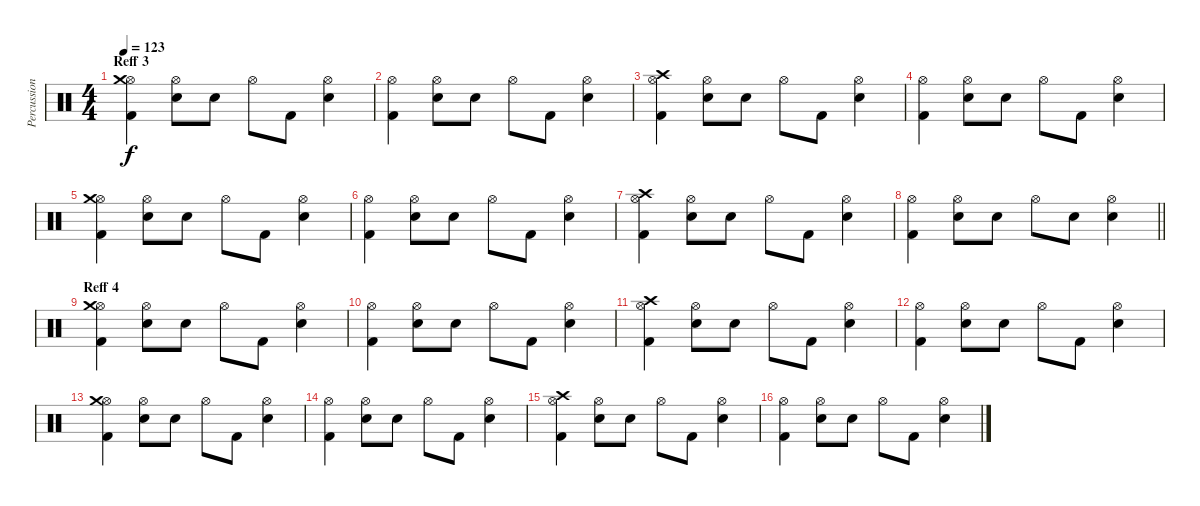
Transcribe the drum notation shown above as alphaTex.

\track ("Percussion 1" "Percussion") {instrument percussion}
\staff {score}
\articulation defaults
\ts (4 4)
\section ("" "Reff 3")
\tempo 123
\clef neutral
\ks c
("Hi-Hat (open)" "Crash medium (hit)" "Kick (hit) 2").4{dy f} ("Hi-Hat (open)" "Electric Snare (hit)").8 "Electric Snare (hit)".8 "Hi-Hat (open)".8 "Kick (hit) 2".8 ("Hi-Hat (open)" "Electric Snare (hit)").4 |
("Hi-Hat (open)" "Kick (hit) 2").4 ("Hi-Hat (open)" "Electric Snare (hit)").8 "Electric Snare (hit)".8 "Hi-Hat (open)".8 "Kick (hit) 2".8 ("Hi-Hat (open)" "Electric Snare (hit)").4 |
("Hi-Hat (open)" "Crash high (hit)" "Kick (hit) 2").4 ("Hi-Hat (open)" "Electric Snare (hit)").8 "Electric Snare (hit)".8 "Hi-Hat (open)".8 "Kick (hit) 2".8 ("Hi-Hat (open)" "Electric Snare (hit)").4 |
("Hi-Hat (open)" "Kick (hit) 2").4 ("Hi-Hat (open)" "Electric Snare (hit)").8 "Electric Snare (hit)".8 "Hi-Hat (open)".8 "Kick (hit) 2".8 ("Hi-Hat (open)" "Electric Snare (hit)").4 |
("Hi-Hat (open)" "Crash medium (hit)" "Kick (hit) 2").4 ("Hi-Hat (open)" "Electric Snare (hit)").8 "Electric Snare (hit)".8 "Hi-Hat (open)".8 "Kick (hit) 2".8 ("Hi-Hat (open)" "Electric Snare (hit)").4 |
("Hi-Hat (open)" "Kick (hit) 2").4 ("Hi-Hat (open)" "Electric Snare (hit)").8 "Electric Snare (hit)".8 "Hi-Hat (open)".8 "Kick (hit) 2".8 ("Hi-Hat (open)" "Electric Snare (hit)").4 |
("Hi-Hat (open)" "Crash high (hit)" "Kick (hit) 2").4 ("Hi-Hat (open)" "Electric Snare (hit)").8 "Electric Snare (hit)".8 "Hi-Hat (open)".8 "Kick (hit) 2".8 ("Hi-Hat (open)" "Electric Snare (hit)").4 |
\barLineRight lightlight
("Hi-Hat (open)" "Kick (hit) 2").4 ("Hi-Hat (open)" "Electric Snare (hit)").8 "Electric Snare (hit)".8 "Hi-Hat (open)".8 "Electric Snare (hit)".8 ("Hi-Hat (open)" "Electric Snare (hit)").4 |
\section ("" "Reff 4")
("Hi-Hat (open)" "Crash medium (hit)" "Kick (hit) 2").4 ("Hi-Hat (open)" "Electric Snare (hit)").8 "Electric Snare (hit)".8 "Hi-Hat (open)".8 "Kick (hit) 2".8 ("Hi-Hat (open)" "Electric Snare (hit)").4 |
("Hi-Hat (open)" "Kick (hit) 2").4 ("Hi-Hat (open)" "Electric Snare (hit)").8 "Electric Snare (hit)".8 "Hi-Hat (open)".8 "Kick (hit) 2".8 ("Hi-Hat (open)" "Electric Snare (hit)").4 |
("Hi-Hat (open)" "Crash high (hit)" "Kick (hit) 2").4 ("Hi-Hat (open)" "Electric Snare (hit)").8 "Electric Snare (hit)".8 "Hi-Hat (open)".8 "Kick (hit) 2".8 ("Hi-Hat (open)" "Electric Snare (hit)").4 |
("Hi-Hat (open)" "Kick (hit) 2").4 ("Hi-Hat (open)" "Electric Snare (hit)").8 "Electric Snare (hit)".8 "Hi-Hat (open)".8 "Kick (hit) 2".8 ("Hi-Hat (open)" "Electric Snare (hit)").4 |
("Hi-Hat (open)" "Crash medium (hit)" "Kick (hit) 2").4 ("Hi-Hat (open)" "Electric Snare (hit)").8 "Electric Snare (hit)".8 "Hi-Hat (open)".8 "Kick (hit) 2".8 ("Hi-Hat (open)" "Electric Snare (hit)").4 |
("Hi-Hat (open)" "Kick (hit) 2").4 ("Hi-Hat (open)" "Electric Snare (hit)").8 "Electric Snare (hit)".8 "Hi-Hat (open)".8 "Kick (hit) 2".8 ("Hi-Hat (open)" "Electric Snare (hit)").4 |
("Hi-Hat (open)" "Crash high (hit)" "Kick (hit) 2").4 ("Hi-Hat (open)" "Electric Snare (hit)").8 "Electric Snare (hit)".8 "Hi-Hat (open)".8 "Kick (hit) 2".8 ("Hi-Hat (open)" "Electric Snare (hit)").4 |
("Hi-Hat (open)" "Kick (hit) 2").4 ("Hi-Hat (open)" "Electric Snare (hit)").8 "Electric Snare (hit)".8 "Hi-Hat (open)".8 "Kick (hit) 2".8 ("Hi-Hat (open)" "Electric Snare (hit)").4
